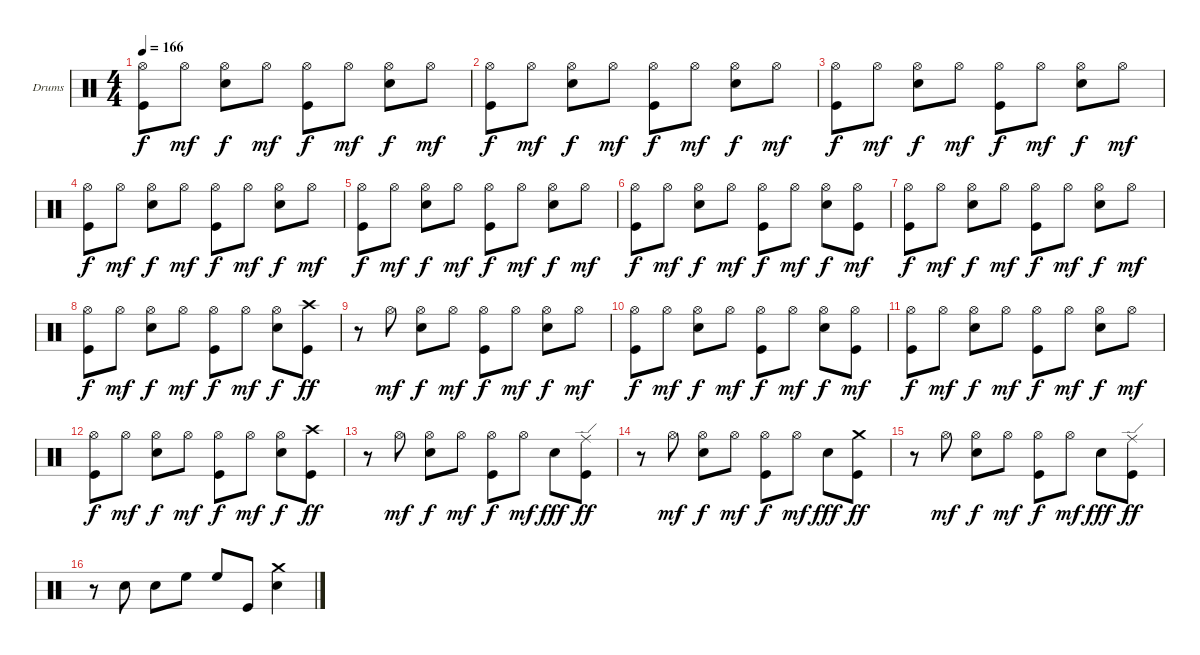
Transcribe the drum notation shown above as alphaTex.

\defaultSystemsLayout 4
\bracketExtendMode groupsimilarinstruments
\firstSystemTrackNameOrientation horizontal
\otherSystemsTrackNameOrientation horizontal
\track ("Lars Ulrich" "Drums") {instrument percussion}
\staff {score}
\articulation defaults
\ts (4 4)
\tempo 166
\clef neutral
\scale
0.333333
\ks c
("Hi-Hat (open)" "Kick (hit)").8{dy f} "Hi-Hat (open)".8{dy mf} ("Hi-Hat (open)" "Snare (hit) 2").8{dy f} "Hi-Hat (open)".8{dy mf} ("Hi-Hat (open)" "Kick (hit)").8{dy f} "Hi-Hat (open)".8{dy mf} ("Hi-Hat (open)" "Snare (hit) 2").8{dy f} "Hi-Hat (open)".8{dy mf} |
\scale
0.333333 ("Hi-Hat (open)" "Kick (hit)").8{dy f} "Hi-Hat (open)".8{dy mf} ("Hi-Hat (open)" "Snare (hit) 2").8{dy f} "Hi-Hat (open)".8{dy mf} ("Hi-Hat (open)" "Kick (hit)").8{dy f} "Hi-Hat (open)".8{dy mf} ("Hi-Hat (open)" "Snare (hit) 2").8{dy f} "Hi-Hat (open)".8{dy mf} |
\scale
0.333333 ("Hi-Hat (open)" "Kick (hit)").8{dy f} "Hi-Hat (open)".8{dy mf} ("Hi-Hat (open)" "Snare (hit) 2").8{dy f} "Hi-Hat (open)".8{dy mf} ("Hi-Hat (open)" "Kick (hit)").8{dy f} "Hi-Hat (open)".8{dy mf} ("Hi-Hat (open)" "Snare (hit) 2").8{dy f} "Hi-Hat (open)".8{dy mf} |
\scale
0.333333 ("Hi-Hat (open)" "Kick (hit)").8{dy f} "Hi-Hat (open)".8{dy mf} ("Hi-Hat (open)" "Snare (hit) 2").8{dy f} "Hi-Hat (open)".8{dy mf} ("Hi-Hat (open)" "Kick (hit)").8{dy f} "Hi-Hat (open)".8{dy mf} ("Hi-Hat (open)" "Snare (hit) 2").8{dy f} "Hi-Hat (open)".8{dy mf} |
\scale
0.333333 ("Hi-Hat (open)" "Kick (hit)").8{dy f} "Hi-Hat (open)".8{dy mf} ("Hi-Hat (open)" "Snare (hit) 2").8{dy f} "Hi-Hat (open)".8{dy mf} ("Hi-Hat (open)" "Kick (hit)").8{dy f} "Hi-Hat (open)".8{dy mf} ("Hi-Hat (open)" "Snare (hit) 2").8{dy f} "Hi-Hat (open)".8{dy mf} |
\scale
0.333333 ("Hi-Hat (open)" "Kick (hit)").8{dy f} "Hi-Hat (open)".8{dy mf} ("Hi-Hat (open)" "Snare (hit) 2").8{dy f} "Hi-Hat (open)".8{dy mf} ("Hi-Hat (open)" "Kick (hit)").8{dy f} "Hi-Hat (open)".8{dy mf} ("Hi-Hat (open)" "Snare (hit) 2").8{dy f} ("Hi-Hat (open)" "Kick (hit)").8{dy mf} |
\scale
0.333333 ("Hi-Hat (open)" "Kick (hit)").8{dy f} "Hi-Hat (open)".8{dy mf} ("Hi-Hat (open)" "Snare (hit) 2").8{dy f} "Hi-Hat (open)".8{dy mf} ("Hi-Hat (open)" "Kick (hit)").8{dy f} "Hi-Hat (open)".8{dy mf} ("Hi-Hat (open)" "Snare (hit) 2").8{dy f} "Hi-Hat (open)".8{dy mf} |
\scale
0.333333 ("Hi-Hat (open)" "Kick (hit)").8{dy f} "Hi-Hat (open)".8{dy mf} ("Hi-Hat (open)" "Snare (hit) 2").8{dy f} "Hi-Hat (open)".8{dy mf} ("Hi-Hat (open)" "Kick (hit)").8{dy f} "Hi-Hat (open)".8{dy mf} ("Hi-Hat (open)" "Snare (hit) 2").8{dy f} ("Crash high (hit)" "Kick (hit)").8{dy ff} |
\scale
0.333333 r.8 "Hi-Hat (open)".8{dy mf} ("Hi-Hat (open)" "Snare (hit) 2").8{dy f} "Hi-Hat (open)".8{dy mf} ("Hi-Hat (open)" "Kick (hit)").8{dy f} "Hi-Hat (open)".8{dy mf} ("Hi-Hat (open)" "Snare (hit) 2").8{dy f} "Hi-Hat (open)".8{dy mf} |
\scale
0.333333 ("Hi-Hat (open)" "Kick (hit)").8{dy f} "Hi-Hat (open)".8{dy mf} ("Hi-Hat (open)" "Snare (hit) 2").8{dy f} "Hi-Hat (open)".8{dy mf} ("Hi-Hat (open)" "Kick (hit)").8{dy f} "Hi-Hat (open)".8{dy mf} ("Hi-Hat (open)" "Snare (hit) 2").8{dy f} ("Hi-Hat (open)" "Kick (hit)").8{dy mf} |
\scale
0.333333 ("Hi-Hat (open)" "Kick (hit)").8{dy f} "Hi-Hat (open)".8{dy mf} ("Hi-Hat (open)" "Snare (hit) 2").8{dy f} "Hi-Hat (open)".8{dy mf} ("Hi-Hat (open)" "Kick (hit)").8{dy f} "Hi-Hat (open)".8{dy mf} ("Hi-Hat (open)" "Snare (hit) 2").8{dy f} "Hi-Hat (open)".8{dy mf} |
\scale
0.333333 ("Hi-Hat (open)" "Kick (hit)").8{dy f} "Hi-Hat (open)".8{dy mf} ("Hi-Hat (open)" "Snare (hit) 2").8{dy f} "Hi-Hat (open)".8{dy mf} ("Hi-Hat (open)" "Kick (hit)").8{dy f} "Hi-Hat (open)".8{dy mf} ("Hi-Hat (open)" "Snare (hit) 2").8{dy f} ("Crash high (hit)" "Kick (hit)").8{dy ff} |
\scale
0.333333 r.8 "Hi-Hat (open)".8{dy mf} ("Hi-Hat (open)" "Snare (hit) 2").8{dy f} "Hi-Hat (open)".8{dy mf} ("Hi-Hat (open)" "Kick (hit)").8{dy f} "Hi-Hat (open)".8{dy mf} "Snare (hit) 2".8{dy fff} ("Ride (edge)" "Kick (hit)").8{dy ff} |
\scale
0.333333 r.8 "Hi-Hat (open)".8{dy mf} ("Hi-Hat (open)" "Snare (hit) 2").8{dy f} "Hi-Hat (open)".8{dy mf} ("Hi-Hat (open)" "Kick (hit)").8{dy f} "Hi-Hat (open)".8{dy mf} "Snare (hit) 2".8{dy fff} ("Crash medium (hit)" "Kick (hit)").8{dy ff} |
\scale
0.333333 r.8 "Hi-Hat (open)".8{dy mf} ("Hi-Hat (open)" "Snare (hit) 2").8{dy f} "Hi-Hat (open)".8{dy mf} ("Hi-Hat (open)" "Kick (hit)").8{dy f} "Hi-Hat (open)".8{dy mf} "Snare (hit) 2".8{dy fff} ("Ride (edge)" "Kick (hit)").8{dy ff} |
\scale
0.333333 r.8 "Snare (hit) 2".8 "Snare (hit) 2".8 "High Floor Tom (hit)".8 "High Floor Tom (hit)".8 "Kick (hit)".8 ("Crash medium (hit)" "Snare (hit) 2").4
